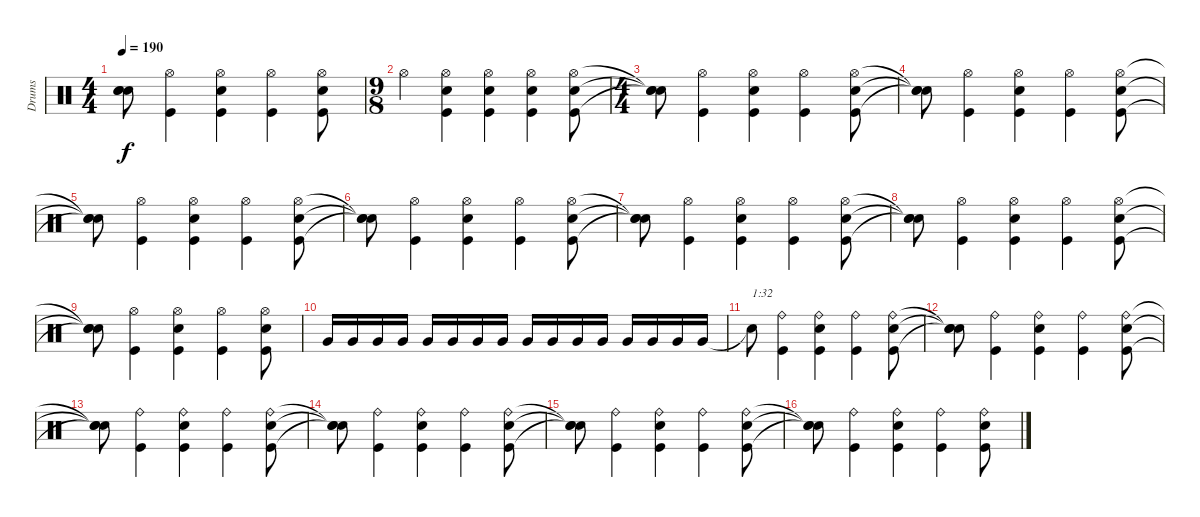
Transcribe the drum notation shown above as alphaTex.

\track ("Drums" "Drums") {instrument percussion}
\staff {score}
\articulation defaults
\ts (4 4)
\tempo 190
\clef neutral
\ks c
("Snare (hit)"{t} "Snare (hit)"{t} "Snare (hit)"{t}).8{dy f} ("Kick (hit)" "Hi-Hat (open)").4 ("Kick (hit)" "Snare (hit) 2" "Hi-Hat (open)").4 ("Kick (hit)" "Hi-Hat (open)").4 ("Kick (hit)" "Snare (hit) 2" "Hi-Hat (open)").8 |
\ts (9 8)
"Hi-Hat (open)".4 ("Kick (hit)" "Snare (hit) 2" "Hi-Hat (open)").4 ("Kick (hit)" "Snare (hit) 2" "Hi-Hat (open)").4 ("Kick (hit)" "Snare (hit) 2" "Hi-Hat (open)").4 ("Kick (hit)" "Snare (hit) 2" "Hi-Hat (open)").8 |
\ts (4 4)
("Snare (hit)"{t} "Snare (hit)"{t} "Snare (hit)"{t}).8 ("Kick (hit)" "Hi-Hat (open)").4 ("Kick (hit)" "Snare (hit) 2" "Hi-Hat (open)").4 ("Kick (hit)" "Hi-Hat (open)").4 ("Kick (hit)" "Snare (hit) 2" "Hi-Hat (open)").8 |
("Snare (hit)"{t} "Snare (hit)"{t} "Snare (hit)"{t}).8 ("Kick (hit)" "Hi-Hat (open)").4 ("Kick (hit)" "Snare (hit) 2" "Hi-Hat (open)").4 ("Kick (hit)" "Hi-Hat (open)").4 ("Kick (hit)" "Snare (hit) 2" "Hi-Hat (open)").8 |
("Snare (hit)"{t} "Snare (hit)"{t} "Snare (hit)"{t}).8 ("Kick (hit)" "Hi-Hat (open)").4 ("Kick (hit)" "Snare (hit) 2" "Hi-Hat (open)").4 ("Kick (hit)" "Hi-Hat (open)").4 ("Kick (hit)" "Snare (hit) 2" "Hi-Hat (open)").8 |
("Snare (hit)"{t} "Snare (hit)"{t} "Snare (hit)"{t}).8 ("Kick (hit)" "Hi-Hat (open)").4 ("Kick (hit)" "Snare (hit) 2" "Hi-Hat (open)").4 ("Kick (hit)" "Hi-Hat (open)").4 ("Kick (hit)" "Snare (hit) 2" "Hi-Hat (open)").8 |
("Snare (hit)"{t} "Snare (hit)"{t} "Snare (hit)"{t}).8 ("Kick (hit)" "Hi-Hat (open)").4 ("Kick (hit)" "Snare (hit) 2" "Hi-Hat (open)").4 ("Kick (hit)" "Hi-Hat (open)").4 ("Kick (hit)" "Snare (hit) 2" "Hi-Hat (open)").8 |
("Snare (hit)"{t} "Snare (hit)"{t} "Snare (hit)"{t}).8 ("Kick (hit)" "Hi-Hat (open)").4 ("Kick (hit)" "Snare (hit) 2" "Hi-Hat (open)").4 ("Kick (hit)" "Hi-Hat (open)").4 ("Kick (hit)" "Snare (hit) 2" "Hi-Hat (open)").8 |
("Snare (hit)"{t} "Snare (hit)"{t} "Snare (hit)"{t}).8 ("Kick (hit)" "Hi-Hat (open)").4 ("Kick (hit)" "Snare (hit) 2" "Hi-Hat (open)").4 ("Kick (hit)" "Hi-Hat (open)").4 ("Kick (hit)" "Snare (hit) 2" "Hi-Hat (open)").8 |
"Very Low Tom (hit)".16 "Very Low Tom (hit)".16 "Very Low Tom (hit)".16 "Very Low Tom (hit)".16 "Very Low Tom (hit)".16 "Very Low Tom (hit)".16 "Very Low Tom (hit)".16 "Very Low Tom (hit)".16 "Very Low Tom (hit)".16 "Very Low Tom (hit)".16 "Very Low Tom (hit)".16 "Very Low Tom (hit)".16 "Very Low Tom (hit)".16 "Very Low Tom (hit)".16 "Very Low Tom (hit)".16 "Very Low Tom (hit)".16 |
"Snare (hit)"{t}.8{txt "1:32"} ("Kick (hit)" "Ride (bell)").4 ("Kick (hit)" "Snare (hit) 2" "Ride (bell)").4 ("Kick (hit)" "Ride (bell)").4 ("Kick (hit)" "Snare (hit) 2" "Ride (bell)").8 |
("Snare (hit)"{t} "Snare (hit)"{t} "Snare (hit)"{t}).8 ("Kick (hit)" "Ride (bell)").4 ("Kick (hit)" "Snare (hit) 2" "Ride (bell)").4 ("Kick (hit)" "Ride (bell)").4 ("Kick (hit)" "Snare (hit) 2" "Ride (bell)").8 |
("Snare (hit)"{t} "Snare (hit)"{t} "Snare (hit)"{t}).8 ("Kick (hit)" "Ride (bell)").4 ("Kick (hit)" "Snare (hit) 2" "Ride (bell)").4 ("Kick (hit)" "Ride (bell)").4 ("Kick (hit)" "Snare (hit) 2" "Ride (bell)").8 |
("Snare (hit)"{t} "Snare (hit)"{t} "Snare (hit)"{t}).8 ("Kick (hit)" "Ride (bell)").4 ("Kick (hit)" "Snare (hit) 2" "Ride (bell)").4 ("Kick (hit)" "Ride (bell)").4 ("Kick (hit)" "Snare (hit) 2" "Ride (bell)").8 |
("Snare (hit)"{t} "Snare (hit)"{t} "Snare (hit)"{t}).8 ("Kick (hit)" "Ride (bell)").4 ("Kick (hit)" "Snare (hit) 2" "Ride (bell)").4 ("Kick (hit)" "Ride (bell)").4 ("Kick (hit)" "Snare (hit) 2" "Ride (bell)").8 |
("Snare (hit)"{t} "Snare (hit)"{t} "Snare (hit)"{t}).8 ("Kick (hit)" "Ride (bell)").4 ("Kick (hit)" "Snare (hit) 2" "Ride (bell)").4 ("Kick (hit)" "Ride (bell)").4 ("Kick (hit)" "Snare (hit) 2" "Ride (bell)").8
